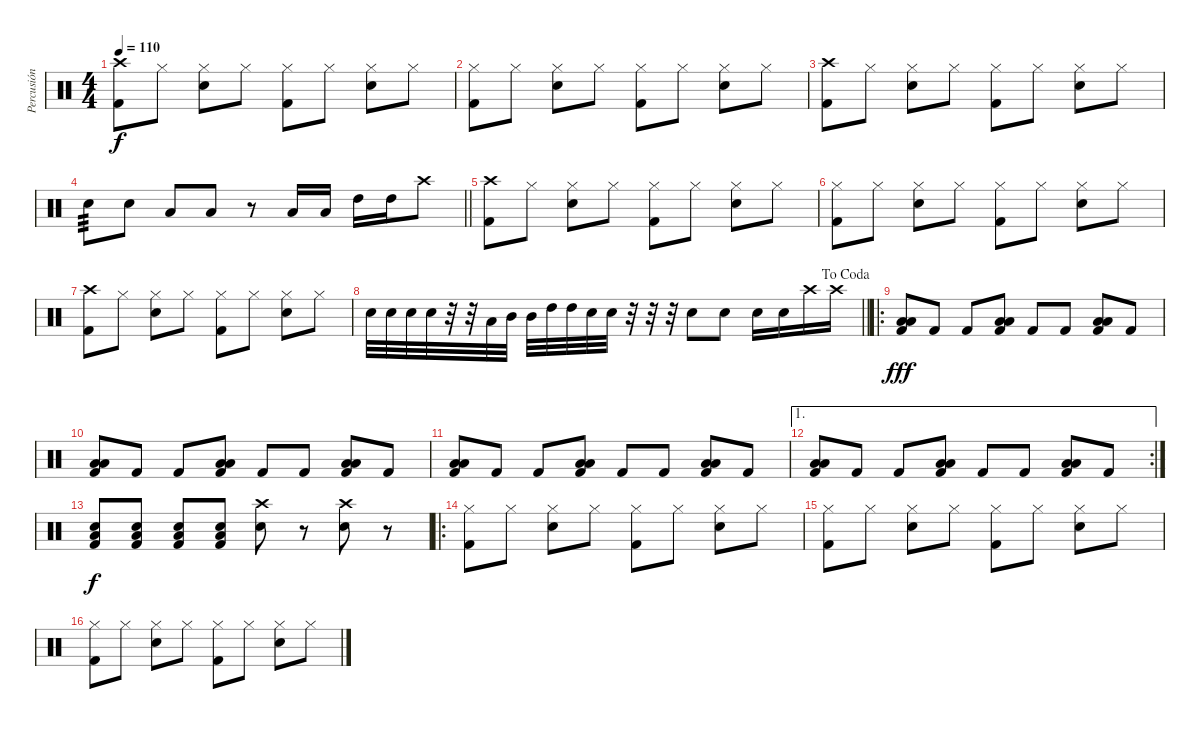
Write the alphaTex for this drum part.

\track ("Percusión" "Percusión") {instrument percussion}
\staff {score}
\articulation defaults
\ts (4 4)
\tempo 110
\clef neutral
\ks c
("Crash high (hit)" "Kick (hit) 2").8{dy f} "Hi-Hat (closed)".8 ("Hi-Hat (closed)" "Snare (hit) 2").8 "Hi-Hat (closed)".8 ("Hi-Hat (closed)" "Kick (hit) 2").8 "Hi-Hat (closed)".8 ("Hi-Hat (closed)" "Snare (hit) 2").8 "Hi-Hat (closed)".8 |
("Hi-Hat (closed)" "Kick (hit) 2").8 "Hi-Hat (closed)".8 ("Hi-Hat (closed)" "Snare (hit) 2").8 "Hi-Hat (closed)".8 ("Hi-Hat (closed)" "Kick (hit) 2").8 "Hi-Hat (closed)".8 ("Hi-Hat (closed)" "Snare (hit) 2").8 "Hi-Hat (closed)".8 |
("Crash high (hit)" "Kick (hit) 2").8 "Hi-Hat (closed)".8 ("Hi-Hat (closed)" "Snare (hit) 2").8 "Hi-Hat (closed)".8 ("Hi-Hat (closed)" "Kick (hit) 2").8 "Hi-Hat (closed)".8 ("Hi-Hat (closed)" "Snare (hit) 2").8 "Hi-Hat (closed)".8 |
\barLineRight lightlight "Snare (hit) 2".8{tp 3} "Snare (hit) 2".8 "Low Tom (hit)".8 "Low Tom (hit)".8
r.8 "Low Tom (hit)".16 "Low Tom (hit)".16 "High Tom (hit)".16 "High Tom (hit)".16 "Crash high (hit)".8 |
("Crash high (hit)" "Kick (hit) 2").8 "Hi-Hat (closed)".8 ("Hi-Hat (closed)" "Snare (hit) 2").8 "Hi-Hat (closed)".8 ("Hi-Hat (closed)" "Kick (hit) 2").8 "Hi-Hat (closed)".8 ("Hi-Hat (closed)" "Snare (hit) 2").8 "Hi-Hat (closed)".8 |
("Hi-Hat (closed)" "Kick (hit) 2").8 "Hi-Hat (closed)".8 ("Hi-Hat (closed)" "Snare (hit) 2").8 "Hi-Hat (closed)".8 ("Hi-Hat (closed)" "Kick (hit) 2").8 "Hi-Hat (closed)".8 ("Hi-Hat (closed)" "Snare (hit) 2").8 "Hi-Hat (closed)".8 |
("Crash high (hit)" "Kick (hit) 2").8 "Hi-Hat (closed)".8 ("Hi-Hat (closed)" "Snare (hit) 2").8 "Hi-Hat (closed)".8 ("Hi-Hat (closed)" "Kick (hit) 2").8 "Hi-Hat (closed)".8 ("Hi-Hat (closed)" "Snare (hit) 2").8 "Hi-Hat (closed)".8 |
\jump dacoda
\barLineRight lightlight "Snare (hit) 2".32 "Snare (hit) 2".32 "Snare (hit) 2".32 "Snare (hit) 2".32
r.32 r.32 "Low Tom (hit)".32 "Mid Tom (hit)".32 "Mid Tom (hit)".32 "High Tom (hit)".32 "High Tom (hit)".32 "Snare (hit) 2".32 "Snare (hit) 2".32 r.32 r.32 r.32 "Snare (hit) 2".8 "Snare (hit) 2".8 "Snare (hit) 2".16 "Snare (hit) 2".16 "Crash high (hit)".16 "Crash high (hit)".16 |
\ro
("Low Floor Tom (hit)" "Low Tom (hit)" "Kick (hit) 2").8{dy fff} "Kick (hit) 2".8 "Kick (hit) 2".8 ("Low Floor Tom (hit)" "Low Tom (hit)" "Kick (hit) 2").8 "Kick (hit) 2".8 "Kick (hit) 2".8 ("Low Floor Tom (hit)" "Low Tom (hit)" "Kick (hit) 2").8 "Kick (hit) 2".8 |
("Low Floor Tom (hit)" "Low Tom (hit)" "Kick (hit) 2").8 "Kick (hit) 2".8 "Kick (hit) 2".8 ("Low Floor Tom (hit)" "Low Tom (hit)" "Kick (hit) 2").8 "Kick (hit) 2".8 "Kick (hit) 2".8 ("Low Floor Tom (hit)" "Low Tom (hit)" "Kick (hit) 2").8 "Kick (hit) 2".8 |
("Low Floor Tom (hit)" "Low Tom (hit)" "Kick (hit) 2").8 "Kick (hit) 2".8 "Kick (hit) 2".8 ("Low Floor Tom (hit)" "Low Tom (hit)" "Kick (hit) 2").8 "Kick (hit) 2".8 "Kick (hit) 2".8 ("Low Floor Tom (hit)" "Low Tom (hit)" "Kick (hit) 2").8 "Kick (hit) 2".8 |
\ae 1
\rc 2
("Low Floor Tom (hit)" "Low Tom (hit)" "Kick (hit) 2").8 "Kick (hit) 2".8 "Kick (hit) 2".8 ("Low Floor Tom (hit)" "Low Tom (hit)" "Kick (hit) 2").8 "Kick (hit) 2".8 "Kick (hit) 2".8 ("Low Floor Tom (hit)" "Low Tom (hit)" "Kick (hit) 2").8 "Kick (hit) 2".8 |
("Snare (hit) 2" "Low Floor Tom (hit)" "Kick (hit) 2").8{dy f} ("Snare (hit) 2" "Low Floor Tom (hit)" "Kick (hit) 2").8 ("Snare (hit) 2" "Low Floor Tom (hit)" "Kick (hit) 2").8 ("Snare (hit) 2" "Low Floor Tom (hit)" "Kick (hit) 2").8 ("Crash high (hit)" "Snare (hit) 2").8 r.8 ("Crash high (hit)" "Snare (hit) 2").8 r.8 |
\ro
("Hi-Hat (closed)" "Kick (hit) 2").8 "Hi-Hat (closed)".8 ("Hi-Hat (closed)" "Snare (hit) 2").8 "Hi-Hat (closed)".8 ("Hi-Hat (closed)" "Kick (hit) 2").8 "Hi-Hat (closed)".8 ("Hi-Hat (closed)" "Snare (hit) 2").8 "Hi-Hat (closed)".8 |
("Hi-Hat (closed)" "Kick (hit) 2").8 "Hi-Hat (closed)".8 ("Hi-Hat (closed)" "Snare (hit) 2").8 "Hi-Hat (closed)".8 ("Hi-Hat (closed)" "Kick (hit) 2").8 "Hi-Hat (closed)".8 ("Hi-Hat (closed)" "Snare (hit) 2").8 "Hi-Hat (closed)".8 |
("Hi-Hat (closed)" "Kick (hit) 2").8 "Hi-Hat (closed)".8 ("Hi-Hat (closed)" "Snare (hit) 2").8 "Hi-Hat (closed)".8 ("Hi-Hat (closed)" "Kick (hit) 2").8 "Hi-Hat (closed)".8 ("Hi-Hat (closed)" "Snare (hit) 2").8 "Hi-Hat (closed)".8
